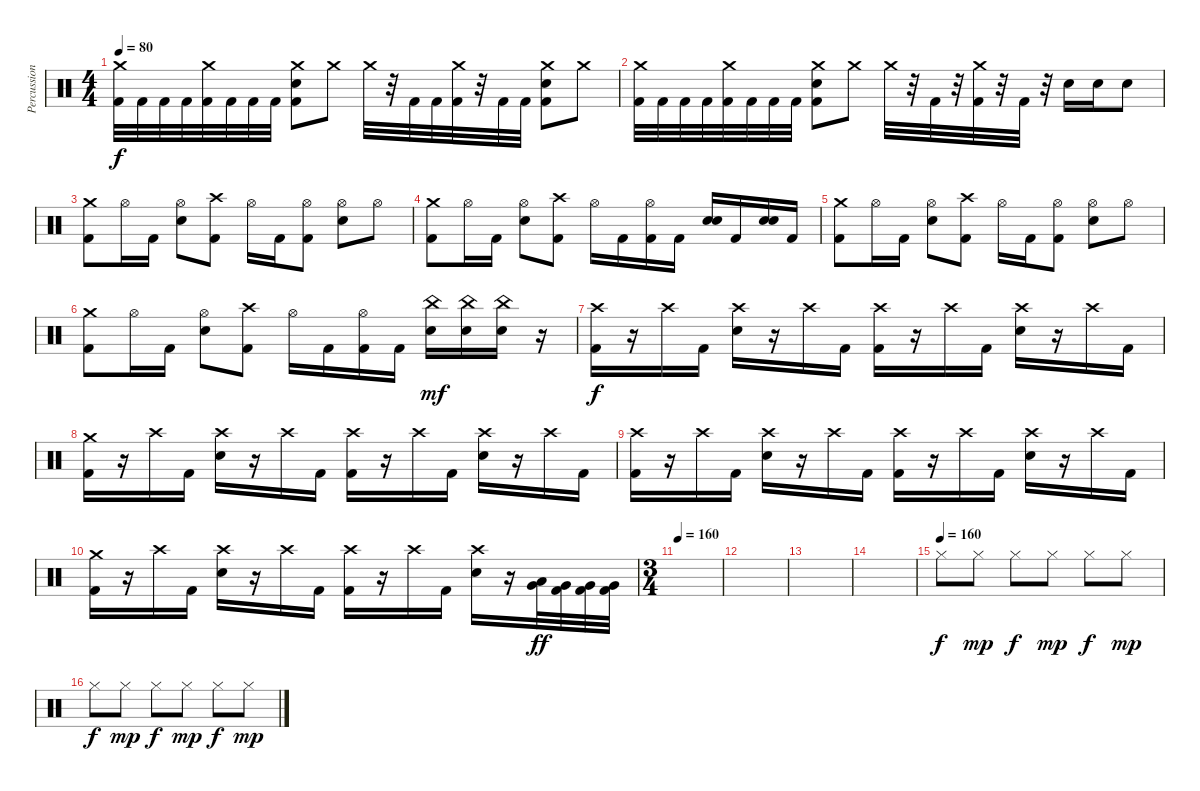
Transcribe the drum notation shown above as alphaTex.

\track ("Percussion" "Percussion") {instrument percussion}
\staff {score}
\articulation defaults
\ts (4 4)
\tempo 80
\clef neutral
\ks c
("Crash medium (hit)" "Kick (hit) 2").32{dy f} "Kick (hit) 2".32 "Kick (hit) 2".32 "Kick (hit) 2".32 ("Crash medium (hit)" "Kick (hit) 2").32 "Kick (hit) 2".32 "Kick (hit) 2".32 "Kick (hit) 2".32 ("Crash medium (hit)" "Electric Snare (hit)" "Kick (hit) 2").8 "Crash medium (hit)".8 "Crash medium (hit)".32 r.32 "Kick (hit) 2".32 "Kick (hit) 2".32 ("Crash medium (hit)" "Kick (hit) 2").32 r.32 "Kick (hit) 2".32 "Kick (hit) 2".32 ("Crash medium (hit)" "Electric Snare (hit)" "Kick (hit) 2").8 "Crash medium (hit)".8 |
("Crash medium (hit)" "Kick (hit) 2").32 "Kick (hit) 2".32 "Kick (hit) 2".32 "Kick (hit) 2".32 ("Crash medium (hit)" "Kick (hit) 2").32 "Kick (hit) 2".32 "Kick (hit) 2".32 "Kick (hit) 2".32 ("Crash medium (hit)" "Electric Snare (hit)" "Kick (hit) 2").8 "Crash medium (hit)".8 "Crash medium (hit)".32 r.32 "Kick (hit) 2".32 r.32 ("Crash medium (hit)" "Kick (hit) 2").32 r.32 "Kick (hit) 2".32 r.32 "Electric Snare (hit)".16 "Electric Snare (hit)".16 "Electric Snare (hit)".8 |
("Crash medium (hit)" "Kick (hit) 2").8 "Hi-Hat (open)".16 "Kick (hit) 2".16 ("Hi-Hat (open)" "Electric Snare (hit)").8 ("Crash high (hit)" "Kick (hit) 2").8 "Hi-Hat (open)".16 "Kick (hit) 2".16 ("Hi-Hat (open)" "Kick (hit) 2").8 ("Hi-Hat (open)" "Electric Snare (hit)").8 "Hi-Hat (open)".8 |
("Crash medium (hit)" "Kick (hit) 2").8 "Hi-Hat (open)".16 "Kick (hit) 2".16 ("Hi-Hat (open)" "Electric Snare (hit)").8 ("Crash high (hit)" "Kick (hit) 2").8 "Hi-Hat (open)".16 "Kick (hit) 2".16 ("Hi-Hat (open)" "Kick (hit) 2").16 "Kick (hit) 2".16 ("Electric Snare (hit)" "Electric Snare (hit)").16 "Kick (hit) 2".16 ("Electric Snare (hit)" "Electric Snare (hit)").16 "Kick (hit) 2".16 |
("Crash medium (hit)" "Kick (hit) 2").8 "Hi-Hat (open)".16 "Kick (hit) 2".16 ("Hi-Hat (open)" "Electric Snare (hit)").8 ("Crash high (hit)" "Kick (hit) 2").8 "Hi-Hat (open)".16 "Kick (hit) 2".16 ("Hi-Hat (open)" "Kick (hit) 2").8 ("Hi-Hat (open)" "Electric Snare (hit)").8 "Hi-Hat (open)".8 |
("Crash medium (hit)" "Kick (hit) 2").8 "Hi-Hat (open)".16 "Kick (hit) 2".16 ("Hi-Hat (open)" "Electric Snare (hit)").8 ("Crash high (hit)" "Kick (hit) 2").8 "Hi-Hat (open)".16 "Kick (hit) 2".16 ("Hi-Hat (open)" "Kick (hit) 2").16 "Kick (hit) 2".16 ("China (hit)" "Electric Snare (hit)").16{dy mf} ("China (hit)" "Electric Snare (hit)").16 ("China (hit)" "Electric Snare (hit)").16 r.16 |
("Crash high (hit)" "Kick (hit) 2").16{dy f} r.16 "Crash high (hit)".16 "Kick (hit) 2".16 ("Crash high (hit)" "Electric Snare (hit)").16 r.16 "Crash high (hit)".16 "Kick (hit) 2".16 ("Crash high (hit)" "Kick (hit) 2").16 r.16 "Crash high (hit)".16 "Kick (hit) 2".16 ("Crash high (hit)" "Electric Snare (hit)").16 r.16 "Crash high (hit)".16 "Kick (hit) 2".16 |
("Crash medium (hit)" "Kick (hit) 2").16 r.16 "Crash high (hit)".16 "Kick (hit) 2".16 ("Crash high (hit)" "Electric Snare (hit)").16 r.16 "Crash high (hit)".16 "Kick (hit) 2".16 ("Crash high (hit)" "Kick (hit) 2").16 r.16 "Crash high (hit)".16 "Kick (hit) 2".16 ("Crash high (hit)" "Electric Snare (hit)").16 r.16 "Crash high (hit)".16 "Kick (hit) 2".16 |
("Crash high (hit)" "Kick (hit) 2").16 r.16 "Crash high (hit)".16 "Kick (hit) 2".16 ("Crash high (hit)" "Electric Snare (hit)").16 r.16 "Crash high (hit)".16 "Kick (hit) 2".16 ("Crash high (hit)" "Kick (hit) 2").16 r.16 "Crash high (hit)".16 "Kick (hit) 2".16 ("Crash high (hit)" "Electric Snare (hit)").16 r.16 "Crash high (hit)".16 "Kick (hit) 2".16 |
("Crash medium (hit)" "Kick (hit) 2").16 r.16 "Crash high (hit)".16 "Kick (hit) 2".16 ("Crash high (hit)" "Electric Snare (hit)").16 r.16 "Crash high (hit)".16 "Kick (hit) 2".16 ("Crash high (hit)" "Kick (hit) 2").16 r.16 "Crash high (hit)".16 "Kick (hit) 2".16 ("Crash high (hit)" "Electric Snare (hit)").16 r.16 ("Low Tom (hit)" "Very Low Tom (hit)").32{dy ff} ("Very Low Tom (hit)" "Kick (hit) 2").32 ("Very Low Tom (hit)" "Kick (hit) 2").32 ("Very Low Tom (hit)" "Kick (hit) 2").32 |
\ts (3 4)
\tempo 160
|
|
|
|
\tempo (160)
"Hi-Hat (closed)".8{dy f volume 13} "Hi-Hat (closed)".8{dy mp} "Hi-Hat (closed)".8{dy f} "Hi-Hat (closed)".8{dy mp} "Hi-Hat (closed)".8{dy f} "Hi-Hat (closed)".8{dy mp} |
"Hi-Hat (closed)".8{dy f} "Hi-Hat (closed)".8{dy mp} "Hi-Hat (closed)".8{dy f} "Hi-Hat (closed)".8{dy mp} "Hi-Hat (closed)".8{dy f} "Hi-Hat (closed)".8{dy mp}
